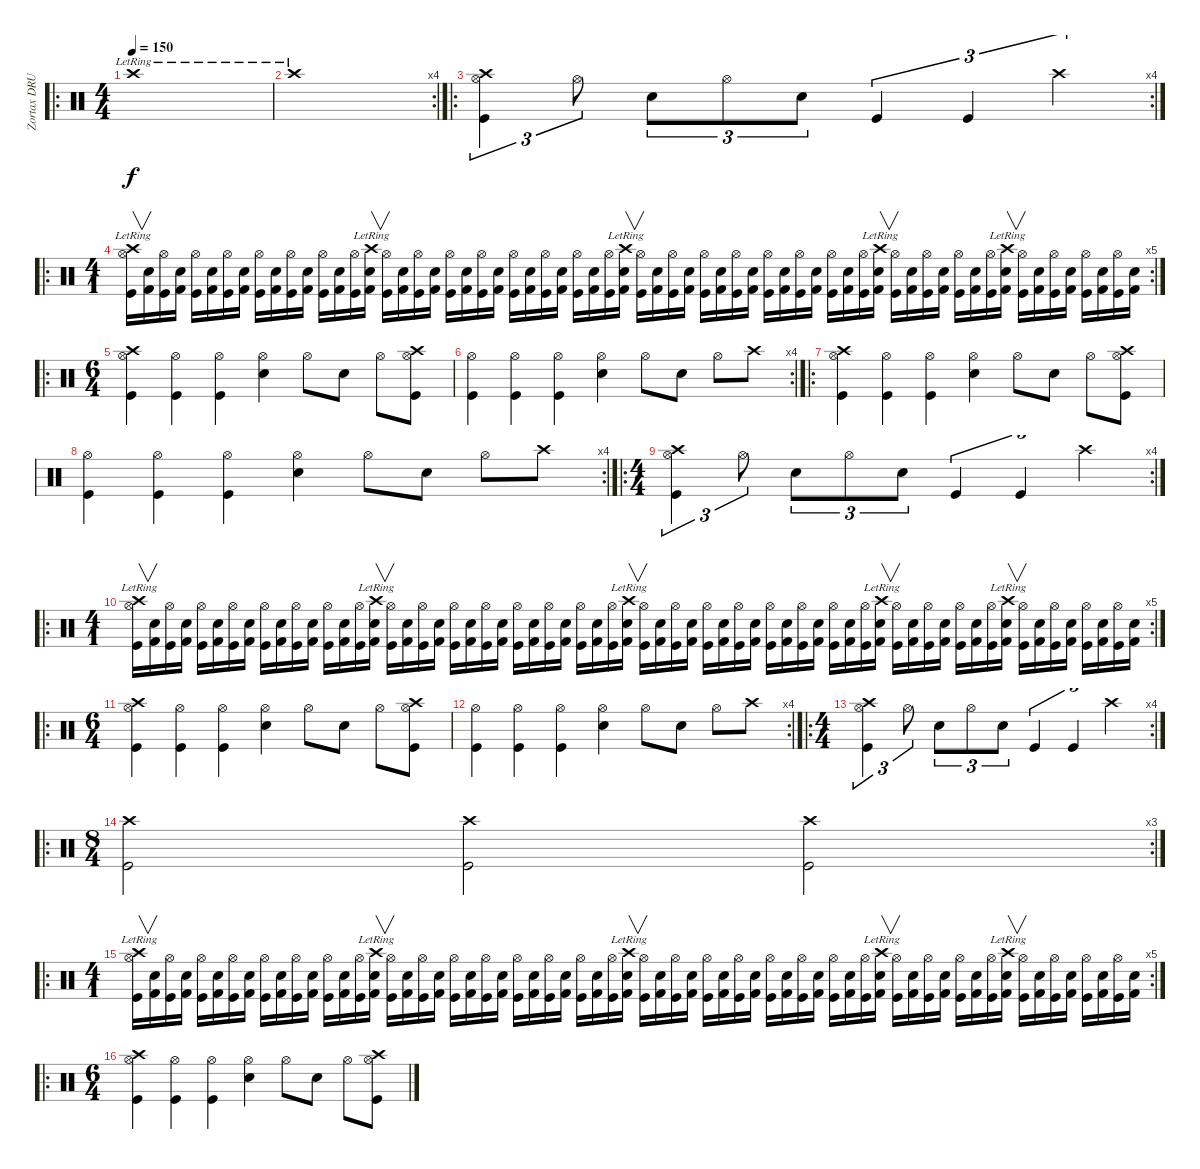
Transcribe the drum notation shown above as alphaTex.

\track ("Zortax DRUMS" "Zortax DRU") {instrument percussion}
\staff {score}
\articulation defaults
\ro
\ts (4 4)
\tempo 150
\clef neutral
\ks c "Crash high (hit)"{lr}.1{dy f}
|
\rc 4 "Crash high (hit)"{lr}.1
|
\ro
\rc 4
("Kick (hit)" "Hi-Hat (open)" "Crash high (hit)").4{tu (3 2)} "Hi-Hat (open)".8{tu (3 2)} "Snare (hit) 2".8{tu (3 2)} "Hi-Hat (open)".8{tu (3 2)} "Snare (hit) 2".8{tu (3 2)} "Kick (hit)".4{tu (3 2)} "Kick (hit)".4{tu (3 2)} "Crash high (hit)".4{tu (3 2)} |
\ro
\rc 5
\ts (4 1)
("Kick (hit)" "Hi-Hat (open)" "Crash high (hit)"{lr}).16{v} ("Kick (hit) 2" "Snare (hit) 2").16 ("Kick (hit)" "Hi-Hat (open)").16 ("Kick (hit) 2" "Snare (hit) 2").16 ("Kick (hit)" "Hi-Hat (open)").16 ("Kick (hit) 2" "Snare (hit) 2").16 ("Kick (hit)" "Hi-Hat (open)").16 ("Kick (hit) 2" "Snare (hit) 2").16 ("Kick (hit)" "Hi-Hat (open)").16 ("Kick (hit) 2" "Snare (hit) 2").16 ("Kick (hit)" "Hi-Hat (open)").16 ("Kick (hit) 2" "Snare (hit) 2").16 ("Kick (hit)" "Hi-Hat (open)").16 ("Kick (hit) 2" "Snare (hit) 2").16 ("Kick (hit)" "Hi-Hat (open)").16 ("Kick (hit) 2" "Snare (hit) 2" "Crash high (hit)"{lr}).16{v} ("Kick (hit)" "Hi-Hat (open)").16 ("Kick (hit) 2" "Snare (hit) 2").16 ("Kick (hit)" "Hi-Hat (open)").16 ("Kick (hit) 2" "Snare (hit) 2").16 ("Kick (hit)" "Hi-Hat (open)").16 ("Kick (hit) 2" "Snare (hit) 2").16 ("Kick (hit)" "Hi-Hat (open)").16 ("Kick (hit) 2" "Snare (hit) 2").16 ("Kick (hit)" "Hi-Hat (open)").16 ("Kick (hit) 2" "Snare (hit) 2").16 ("Kick (hit)" "Hi-Hat (open)").16 ("Kick (hit) 2" "Snare (hit) 2").16 ("Kick (hit)" "Hi-Hat (open)").16 ("Kick (hit) 2" "Snare (hit) 2").16 ("Kick (hit)" "Hi-Hat (open)").16 ("Kick (hit) 2" "Snare (hit) 2" "Crash high (hit)"{lr}).16{v} ("Kick (hit)" "Hi-Hat (open)").16 ("Kick (hit) 2" "Snare (hit) 2").16 ("Kick (hit)" "Hi-Hat (open)").16 ("Kick (hit) 2" "Snare (hit) 2").16 ("Kick (hit)" "Hi-Hat (open)").16 ("Kick (hit) 2" "Snare (hit) 2").16 ("Kick (hit)" "Hi-Hat (open)").16 ("Kick (hit) 2" "Snare (hit) 2").16 ("Kick (hit)" "Hi-Hat (open)").16 ("Kick (hit) 2" "Snare (hit) 2").16 ("Kick (hit)" "Hi-Hat (open)").16 ("Kick (hit) 2" "Snare (hit) 2").16 ("Kick (hit)" "Hi-Hat (open)").16 ("Kick (hit) 2" "Snare (hit) 2").16 ("Kick (hit)" "Hi-Hat (open)").16 ("Kick (hit) 2" "Snare (hit) 2" "Crash high (hit)"{lr}).16{v} ("Kick (hit)" "Hi-Hat (open)").16 ("Kick (hit) 2" "Snare (hit) 2").16 ("Kick (hit)" "Hi-Hat (open)").16 ("Kick (hit) 2" "Snare (hit) 2").16 ("Kick (hit)" "Hi-Hat (open)").16 ("Kick (hit) 2" "Snare (hit) 2").16 ("Kick (hit)" "Hi-Hat (open)").16 ("Kick (hit) 2" "Snare (hit) 2" "Crash high (hit)"{lr}).16{v} ("Kick (hit)" "Hi-Hat (open)").16 ("Kick (hit) 2" "Snare (hit) 2").16 ("Kick (hit)" "Hi-Hat (open)").16 ("Kick (hit) 2" "Snare (hit) 2").16 ("Kick (hit)" "Hi-Hat (open)").16 ("Kick (hit) 2" "Snare (hit) 2").16 ("Kick (hit)" "Hi-Hat (open)").16 ("Kick (hit) 2" "Snare (hit) 2").16 |
\ro
\ts (6 4)
("Kick (hit)" "Hi-Hat (open)" "Crash high (hit)").4 ("Kick (hit)" "Hi-Hat (open)").4 ("Kick (hit)" "Hi-Hat (open)").4 ("Hi-Hat (open)" "Snare (hit) 2").4 "Hi-Hat (open)".8 "Snare (hit) 2".8 "Hi-Hat (open)".8 ("Kick (hit)" "Hi-Hat (open)" "Crash high (hit)").8 |
\rc 4
("Kick (hit)" "Hi-Hat (open)").4 ("Kick (hit)" "Hi-Hat (open)").4 ("Kick (hit)" "Hi-Hat (open)").4 ("Hi-Hat (open)" "Snare (hit) 2").4 "Hi-Hat (open)".8 "Snare (hit) 2".8 "Hi-Hat (open)".8 "Crash high (hit)".8 |
\ro
("Kick (hit)" "Hi-Hat (open)" "Crash high (hit)").4 ("Kick (hit)" "Hi-Hat (open)").4 ("Kick (hit)" "Hi-Hat (open)").4 ("Hi-Hat (open)" "Snare (hit) 2").4 "Hi-Hat (open)".8 "Snare (hit) 2".8 "Hi-Hat (open)".8 ("Kick (hit)" "Hi-Hat (open)" "Crash high (hit)").8 |
\rc 4
("Kick (hit)" "Hi-Hat (open)").4 ("Kick (hit)" "Hi-Hat (open)").4 ("Kick (hit)" "Hi-Hat (open)").4 ("Hi-Hat (open)" "Snare (hit) 2").4 "Hi-Hat (open)".8 "Snare (hit) 2".8 "Hi-Hat (open)".8 "Crash high (hit)".8 |
\ro
\rc 4
\ts (4 4)
("Kick (hit)" "Hi-Hat (open)" "Crash high (hit)").4{tu (3 2)} "Hi-Hat (open)".8{tu (3 2)} "Snare (hit) 2".8{tu (3 2)} "Hi-Hat (open)".8{tu (3 2)} "Snare (hit) 2".8{tu (3 2)} "Kick (hit)".4{tu (3 2)} "Kick (hit)".4{tu (3 2)} "Crash high (hit)".4{tu (3 2)} |
\ro
\rc 5
\ts (4 1)
("Kick (hit)" "Hi-Hat (open)" "Crash high (hit)"{lr}).16{v} ("Kick (hit) 2" "Snare (hit) 2").16 ("Kick (hit)" "Hi-Hat (open)").16 ("Kick (hit) 2" "Snare (hit) 2").16 ("Kick (hit)" "Hi-Hat (open)").16 ("Kick (hit) 2" "Snare (hit) 2").16 ("Kick (hit)" "Hi-Hat (open)").16 ("Kick (hit) 2" "Snare (hit) 2").16 ("Kick (hit)" "Hi-Hat (open)").16 ("Kick (hit) 2" "Snare (hit) 2").16 ("Kick (hit)" "Hi-Hat (open)").16 ("Kick (hit) 2" "Snare (hit) 2").16 ("Kick (hit)" "Hi-Hat (open)").16 ("Kick (hit) 2" "Snare (hit) 2").16 ("Kick (hit)" "Hi-Hat (open)").16 ("Kick (hit) 2" "Snare (hit) 2" "Crash high (hit)"{lr}).16{v} ("Kick (hit)" "Hi-Hat (open)").16 ("Kick (hit) 2" "Snare (hit) 2").16 ("Kick (hit)" "Hi-Hat (open)").16 ("Kick (hit) 2" "Snare (hit) 2").16 ("Kick (hit)" "Hi-Hat (open)").16 ("Kick (hit) 2" "Snare (hit) 2").16 ("Kick (hit)" "Hi-Hat (open)").16 ("Kick (hit) 2" "Snare (hit) 2").16 ("Kick (hit)" "Hi-Hat (open)").16 ("Kick (hit) 2" "Snare (hit) 2").16 ("Kick (hit)" "Hi-Hat (open)").16 ("Kick (hit) 2" "Snare (hit) 2").16 ("Kick (hit)" "Hi-Hat (open)").16 ("Kick (hit) 2" "Snare (hit) 2").16 ("Kick (hit)" "Hi-Hat (open)").16 ("Kick (hit) 2" "Snare (hit) 2" "Crash high (hit)"{lr}).16{v} ("Kick (hit)" "Hi-Hat (open)").16 ("Kick (hit) 2" "Snare (hit) 2").16 ("Kick (hit)" "Hi-Hat (open)").16 ("Kick (hit) 2" "Snare (hit) 2").16 ("Kick (hit)" "Hi-Hat (open)").16 ("Kick (hit) 2" "Snare (hit) 2").16 ("Kick (hit)" "Hi-Hat (open)").16 ("Kick (hit) 2" "Snare (hit) 2").16 ("Kick (hit)" "Hi-Hat (open)").16 ("Kick (hit) 2" "Snare (hit) 2").16 ("Kick (hit)" "Hi-Hat (open)").16 ("Kick (hit) 2" "Snare (hit) 2").16 ("Kick (hit)" "Hi-Hat (open)").16 ("Kick (hit) 2" "Snare (hit) 2").16 ("Kick (hit)" "Hi-Hat (open)").16 ("Kick (hit) 2" "Snare (hit) 2" "Crash high (hit)"{lr}).16{v} ("Kick (hit)" "Hi-Hat (open)").16 ("Kick (hit) 2" "Snare (hit) 2").16 ("Kick (hit)" "Hi-Hat (open)").16 ("Kick (hit) 2" "Snare (hit) 2").16 ("Kick (hit)" "Hi-Hat (open)").16 ("Kick (hit) 2" "Snare (hit) 2").16 ("Kick (hit)" "Hi-Hat (open)").16 ("Kick (hit) 2" "Snare (hit) 2" "Crash high (hit)"{lr}).16{v} ("Kick (hit)" "Hi-Hat (open)").16 ("Kick (hit) 2" "Snare (hit) 2").16 ("Kick (hit)" "Hi-Hat (open)").16 ("Kick (hit) 2" "Snare (hit) 2").16 ("Kick (hit)" "Hi-Hat (open)").16 ("Kick (hit) 2" "Snare (hit) 2").16 ("Kick (hit)" "Hi-Hat (open)").16 ("Kick (hit) 2" "Snare (hit) 2").16 |
\ro
\ts (6 4)
("Kick (hit)" "Hi-Hat (open)" "Crash high (hit)").4 ("Kick (hit)" "Hi-Hat (open)").4 ("Kick (hit)" "Hi-Hat (open)").4 ("Hi-Hat (open)" "Snare (hit) 2").4 "Hi-Hat (open)".8 "Snare (hit) 2".8 "Hi-Hat (open)".8 ("Kick (hit)" "Hi-Hat (open)" "Crash high (hit)").8 |
\rc 4
("Kick (hit)" "Hi-Hat (open)").4 ("Kick (hit)" "Hi-Hat (open)").4 ("Kick (hit)" "Hi-Hat (open)").4 ("Hi-Hat (open)" "Snare (hit) 2").4 "Hi-Hat (open)".8 "Snare (hit) 2".8 "Hi-Hat (open)".8 "Crash high (hit)".8 |
\ro
\rc 4
\ts (4 4)
("Kick (hit)" "Hi-Hat (open)" "Crash high (hit)").4{tu (3 2)} "Hi-Hat (open)".8{tu (3 2)} "Snare (hit) 2".8{tu (3 2)} "Hi-Hat (open)".8{tu (3 2)} "Snare (hit) 2".8{tu (3 2)} "Kick (hit)".4{tu (3 2)} "Kick (hit)".4{tu (3 2)} "Crash high (hit)".4{tu (3 2)} |
\ro
\rc 3
\ts (8 4)
("Kick (hit)" "Crash high (hit)").2 ("Kick (hit)" "Crash high (hit)").2 ("Kick (hit)" "Crash high (hit)").2 |
\ro
\rc 5
\ts (4 1)
("Kick (hit)" "Hi-Hat (open)" "Crash high (hit)"{lr}).16{v} ("Kick (hit) 2" "Snare (hit) 2").16 ("Kick (hit)" "Hi-Hat (open)").16 ("Kick (hit) 2" "Snare (hit) 2").16 ("Kick (hit)" "Hi-Hat (open)").16 ("Kick (hit) 2" "Snare (hit) 2").16 ("Kick (hit)" "Hi-Hat (open)").16 ("Kick (hit) 2" "Snare (hit) 2").16 ("Kick (hit)" "Hi-Hat (open)").16 ("Kick (hit) 2" "Snare (hit) 2").16 ("Kick (hit)" "Hi-Hat (open)").16 ("Kick (hit) 2" "Snare (hit) 2").16 ("Kick (hit)" "Hi-Hat (open)").16 ("Kick (hit) 2" "Snare (hit) 2").16 ("Kick (hit)" "Hi-Hat (open)").16 ("Kick (hit) 2" "Snare (hit) 2" "Crash high (hit)"{lr}).16{v} ("Kick (hit)" "Hi-Hat (open)").16 ("Kick (hit) 2" "Snare (hit) 2").16 ("Kick (hit)" "Hi-Hat (open)").16 ("Kick (hit) 2" "Snare (hit) 2").16 ("Kick (hit)" "Hi-Hat (open)").16 ("Kick (hit) 2" "Snare (hit) 2").16 ("Kick (hit)" "Hi-Hat (open)").16 ("Kick (hit) 2" "Snare (hit) 2").16 ("Kick (hit)" "Hi-Hat (open)").16 ("Kick (hit) 2" "Snare (hit) 2").16 ("Kick (hit)" "Hi-Hat (open)").16 ("Kick (hit) 2" "Snare (hit) 2").16 ("Kick (hit)" "Hi-Hat (open)").16 ("Kick (hit) 2" "Snare (hit) 2").16 ("Kick (hit)" "Hi-Hat (open)").16 ("Kick (hit) 2" "Snare (hit) 2" "Crash high (hit)"{lr}).16{v} ("Kick (hit)" "Hi-Hat (open)").16 ("Kick (hit) 2" "Snare (hit) 2").16 ("Kick (hit)" "Hi-Hat (open)").16 ("Kick (hit) 2" "Snare (hit) 2").16 ("Kick (hit)" "Hi-Hat (open)").16 ("Kick (hit) 2" "Snare (hit) 2").16 ("Kick (hit)" "Hi-Hat (open)").16 ("Kick (hit) 2" "Snare (hit) 2").16 ("Kick (hit)" "Hi-Hat (open)").16 ("Kick (hit) 2" "Snare (hit) 2").16 ("Kick (hit)" "Hi-Hat (open)").16 ("Kick (hit) 2" "Snare (hit) 2").16 ("Kick (hit)" "Hi-Hat (open)").16 ("Kick (hit) 2" "Snare (hit) 2").16 ("Kick (hit)" "Hi-Hat (open)").16 ("Kick (hit) 2" "Snare (hit) 2" "Crash high (hit)"{lr}).16{v} ("Kick (hit)" "Hi-Hat (open)").16 ("Kick (hit) 2" "Snare (hit) 2").16 ("Kick (hit)" "Hi-Hat (open)").16 ("Kick (hit) 2" "Snare (hit) 2").16 ("Kick (hit)" "Hi-Hat (open)").16 ("Kick (hit) 2" "Snare (hit) 2").16 ("Kick (hit)" "Hi-Hat (open)").16 ("Kick (hit) 2" "Snare (hit) 2" "Crash high (hit)"{lr}).16{v} ("Kick (hit)" "Hi-Hat (open)").16 ("Kick (hit) 2" "Snare (hit) 2").16 ("Kick (hit)" "Hi-Hat (open)").16 ("Kick (hit) 2" "Snare (hit) 2").16 ("Kick (hit)" "Hi-Hat (open)").16 ("Kick (hit) 2" "Snare (hit) 2").16 ("Kick (hit)" "Hi-Hat (open)").16 ("Kick (hit) 2" "Snare (hit) 2").16 |
\ro
\ts (6 4)
("Kick (hit)" "Hi-Hat (open)" "Crash high (hit)").4 ("Kick (hit)" "Hi-Hat (open)").4 ("Kick (hit)" "Hi-Hat (open)").4 ("Hi-Hat (open)" "Snare (hit) 2").4 "Hi-Hat (open)".8 "Snare (hit) 2".8 "Hi-Hat (open)".8 ("Kick (hit)" "Hi-Hat (open)" "Crash high (hit)").8
